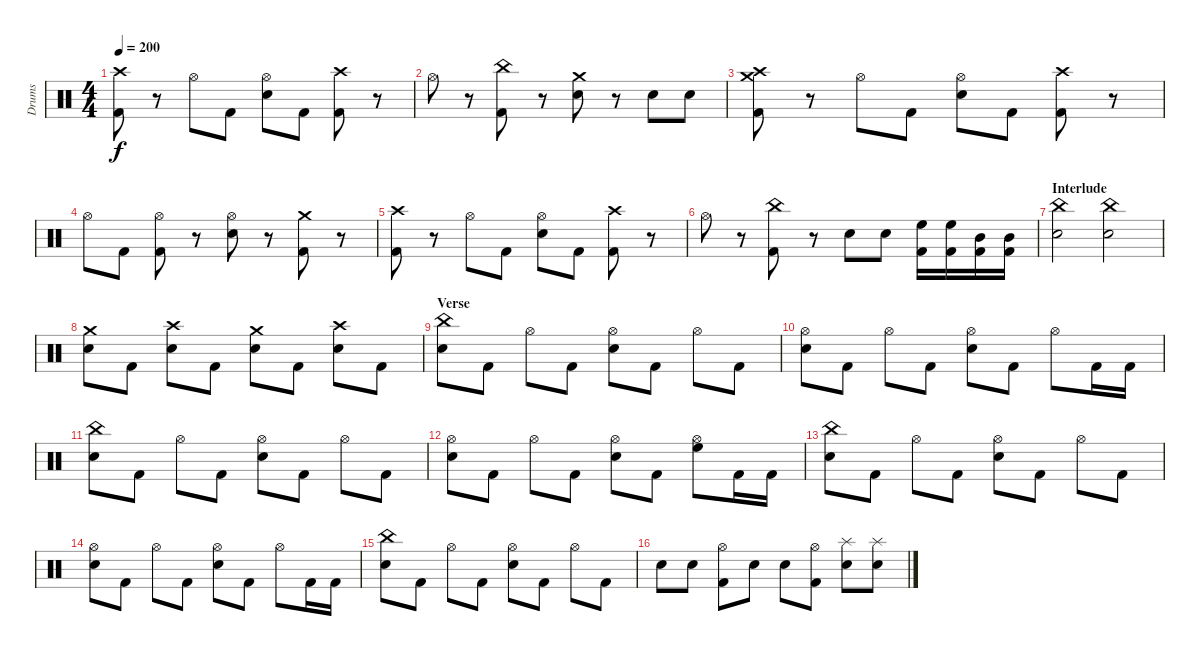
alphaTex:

\track ("Drums" "Drums") {instrument percussion}
\staff {score}
\articulation defaults
\ts (4 4)
\tempo 200
\clef neutral
\ks c
("Crash high (hit)" "Kick (hit) 2").8{dy f} r.8 "Hi-Hat (open)".8 "Kick (hit) 2".8 ("Hi-Hat (open)" "Electric Snare (hit)").8 "Kick (hit) 2".8 ("Crash high (hit)" "Kick (hit) 2").8 r.8 |
"Hi-Hat (open)".8 r.8 ("China (hit)" "Kick (hit) 2").8 r.8 ("Crash medium (hit)" "Electric Snare (hit)").8 r.8 "Electric Snare (hit)".8 "Electric Snare (hit)".8 |
("Crash medium (hit)" "Crash high (hit)" "Kick (hit) 2").8 r.8 "Hi-Hat (open)".8 "Kick (hit) 2".8 ("Hi-Hat (open)" "Electric Snare (hit)").8 "Kick (hit) 2".8 ("Crash high (hit)" "Kick (hit) 2").8 r.8 |
"Hi-Hat (open)".8 "Kick (hit) 2".8 ("Hi-Hat (open)" "Kick (hit) 2").8 r.8 ("Hi-Hat (open)" "Electric Snare (hit)").8 r.8 ("Crash medium (hit)" "Kick (hit) 2").8 r.8 |
("Crash high (hit)" "Kick (hit) 2").8 r.8 "Hi-Hat (open)".8 "Kick (hit) 2".8 ("Hi-Hat (open)" "Electric Snare (hit)").8 "Kick (hit) 2".8 ("Crash high (hit)" "Kick (hit) 2").8 r.8 |
"Hi-Hat (open)".8 r.8 ("China (hit)" "Kick (hit) 2").8 r.8 "Electric Snare (hit)".8 "Electric Snare (hit)".8 ("High Floor Tom (hit)" "Kick (hit) 2").16 ("High Floor Tom (hit)" "Kick (hit) 2").16 ("Mid Tom (hit)" "Kick (hit) 2").16 ("Mid Tom (hit)" "Kick (hit) 2").16 |
\section ("" "Interlude")
("China (hit)" "Electric Snare (hit)").2 ("China (hit)" "Electric Snare (hit)").2 |
("Crash medium (hit)" "Electric Snare (hit)").8 "Kick (hit) 2".8 ("Crash high (hit)" "Electric Snare (hit)").8 "Kick (hit) 2".8 ("Crash medium (hit)" "Electric Snare (hit)").8 "Kick (hit) 2".8 ("Crash high (hit)" "Electric Snare (hit)").8 "Kick (hit) 2".8 |
\section ("" "Verse")
("China (hit)" "Electric Snare (hit)").8 "Kick (hit) 2".8 "Hi-Hat (open)".8 "Kick (hit) 2".8 ("Hi-Hat (open)" "Electric Snare (hit)").8 "Kick (hit) 2".8 "Hi-Hat (open)".8 "Kick (hit) 2".8 |
("Hi-Hat (open)" "Electric Snare (hit)").8 "Kick (hit) 2".8 "Hi-Hat (open)".8 "Kick (hit) 2".8 ("Hi-Hat (open)" "Electric Snare (hit)").8 "Kick (hit) 2".8 "Hi-Hat (open)".8 "Kick (hit) 2".16 "Kick (hit) 2".16 |
("China (hit)" "Electric Snare (hit)").8 "Kick (hit) 2".8 "Hi-Hat (open)".8 "Kick (hit) 2".8 ("Hi-Hat (open)" "Electric Snare (hit)").8 "Kick (hit) 2".8 "Hi-Hat (open)".8 "Kick (hit) 2".8 |
("Hi-Hat (open)" "Electric Snare (hit)").8 "Kick (hit) 2".8 "Hi-Hat (open)".8 "Kick (hit) 2".8 ("Hi-Hat (open)" "Electric Snare (hit)").8 "Kick (hit) 2".8 ("Hi-Hat (open)" "High Floor Tom (hit)").8 "Kick (hit) 2".16 "Kick (hit) 2".16 |
("China (hit)" "Electric Snare (hit)").8 "Kick (hit) 2".8 "Hi-Hat (open)".8 "Kick (hit) 2".8 ("Hi-Hat (open)" "Electric Snare (hit)").8 "Kick (hit) 2".8 "Hi-Hat (open)".8 "Kick (hit) 2".8 |
("Hi-Hat (open)" "Electric Snare (hit)").8 "Kick (hit) 2".8 "Hi-Hat (open)".8 "Kick (hit) 2".8 ("Hi-Hat (open)" "Electric Snare (hit)").8 "Kick (hit) 2".8 "Hi-Hat (open)".8 "Kick (hit) 2".16 "Kick (hit) 2".16 |
("China (hit)" "Electric Snare (hit)").8 "Kick (hit) 2".8 "Hi-Hat (open)".8 "Kick (hit) 2".8 ("Hi-Hat (open)" "Electric Snare (hit)").8 "Kick (hit) 2".8 "Hi-Hat (open)".8 "Kick (hit) 2".8 |
"Electric Snare (hit)".8 "Electric Snare (hit)".8 ("Hi-Hat (open)" "Kick (hit) 2").8 "Electric Snare (hit)".8 "Electric Snare (hit)".8 ("Hi-Hat (open)" "Kick (hit) 2").8 ("Splash (hit)" "Electric Snare (hit)").8 ("Splash (hit)" "Electric Snare (hit)").8
